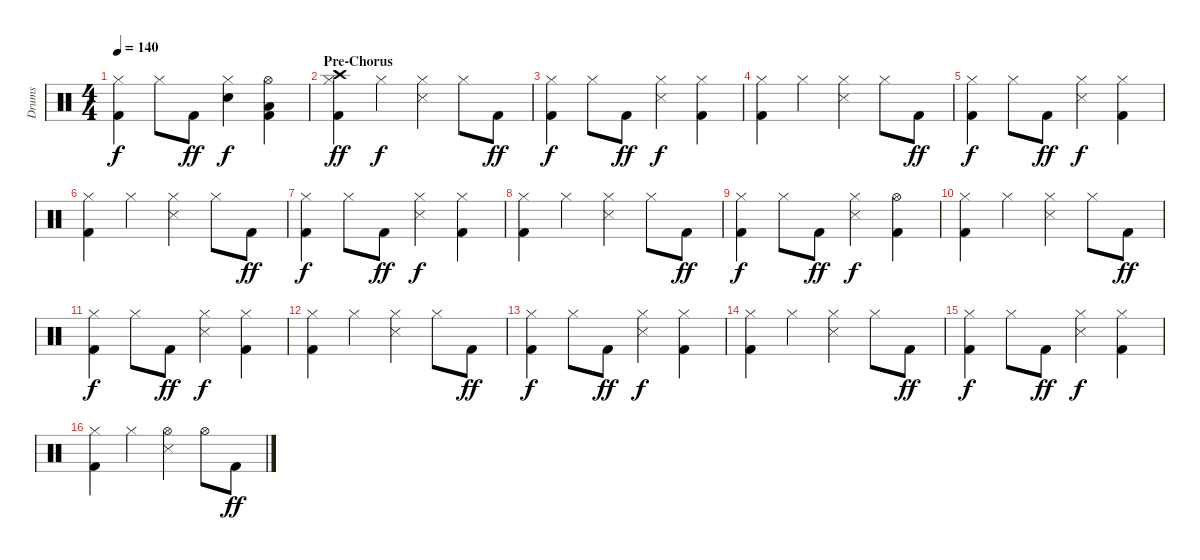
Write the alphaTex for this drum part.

\track ("Drums" "Drums") {instrument percussion}
\staff {score}
\articulation defaults
\ts (4 4)
\tempo 140
\clef neutral
\ks c
("Kick (hit) 2" "Hi-Hat (closed)").4{dy f} "Hi-Hat (closed)".8 "Kick (hit) 2".8{dy ff} ("Snare (hit) 2" "Hi-Hat (closed)").4{dy f} ("Kick (hit) 2" "Low Tom (hit)" "Hi-Hat (open)").4 |
\section ("" "Pre-Chorus")
("Kick (hit) 2" "Hi-Hat (closed)" "Crash high (hit)").4{dy ff} "Hi-Hat (closed)".4{dy f} ("Snare (side stick) 3" "Hi-Hat (closed)").4 "Hi-Hat (closed)".8 "Kick (hit) 2".8{dy ff} |
("Kick (hit) 2" "Hi-Hat (closed)").4{dy f} "Hi-Hat (closed)".8 "Kick (hit) 2".8{dy ff} ("Snare (side stick) 3" "Hi-Hat (closed)").4{dy f} ("Kick (hit) 2" "Hi-Hat (closed)").4 |
("Kick (hit) 2" "Hi-Hat (closed)").4 "Hi-Hat (closed)".4 ("Snare (side stick) 3" "Hi-Hat (closed)").4 "Hi-Hat (closed)".8 "Kick (hit) 2".8{dy ff} |
("Kick (hit) 2" "Hi-Hat (closed)").4{dy f} "Hi-Hat (closed)".8 "Kick (hit) 2".8{dy ff} ("Snare (side stick) 3" "Hi-Hat (closed)").4{dy f} ("Kick (hit) 2" "Hi-Hat (closed)").4 |
("Kick (hit) 2" "Hi-Hat (closed)").4 "Hi-Hat (closed)".4 ("Snare (side stick) 3" "Hi-Hat (closed)").4 "Hi-Hat (closed)".8 "Kick (hit) 2".8{dy ff} |
("Kick (hit) 2" "Hi-Hat (closed)").4{dy f} "Hi-Hat (closed)".8 "Kick (hit) 2".8{dy ff} ("Snare (side stick) 3" "Hi-Hat (closed)").4{dy f} ("Kick (hit) 2" "Hi-Hat (closed)").4 |
("Kick (hit) 2" "Hi-Hat (closed)").4 "Hi-Hat (closed)".4 ("Snare (side stick) 3" "Hi-Hat (closed)").4 "Hi-Hat (closed)".8 "Kick (hit) 2".8{dy ff} |
("Kick (hit) 2" "Hi-Hat (closed)").4{dy f} "Hi-Hat (closed)".8 "Kick (hit) 2".8{dy ff} ("Snare (side stick) 3" "Hi-Hat (closed)").4{dy f} ("Kick (hit) 2" "Hi-Hat (open)").4 |
("Kick (hit) 2" "Hi-Hat (closed)").4 "Hi-Hat (closed)".4 ("Snare (side stick) 3" "Hi-Hat (closed)").4 "Hi-Hat (closed)".8 "Kick (hit) 2".8{dy ff} |
("Kick (hit) 2" "Hi-Hat (closed)").4{dy f} "Hi-Hat (closed)".8 "Kick (hit) 2".8{dy ff} ("Snare (side stick) 3" "Hi-Hat (closed)").4{dy f} ("Kick (hit) 2" "Hi-Hat (closed)").4 |
("Kick (hit) 2" "Hi-Hat (closed)").4 "Hi-Hat (closed)".4 ("Snare (side stick) 3" "Hi-Hat (closed)").4 "Hi-Hat (closed)".8 "Kick (hit) 2".8{dy ff} |
("Kick (hit) 2" "Hi-Hat (closed)").4{dy f} "Hi-Hat (closed)".8 "Kick (hit) 2".8{dy ff} ("Snare (side stick) 3" "Hi-Hat (closed)").4{dy f} ("Kick (hit) 2" "Hi-Hat (closed)").4 |
("Kick (hit) 2" "Hi-Hat (closed)").4 "Hi-Hat (closed)".4 ("Snare (side stick) 3" "Hi-Hat (closed)").4 "Hi-Hat (closed)".8 "Kick (hit) 2".8{dy ff} |
("Kick (hit) 2" "Hi-Hat (closed)").4{dy f} "Hi-Hat (closed)".8 "Kick (hit) 2".8{dy ff} ("Snare (side stick) 3" "Hi-Hat (closed)").4{dy f} ("Kick (hit) 2" "Hi-Hat (closed)").4 |
("Kick (hit) 2" "Hi-Hat (closed)").4 "Hi-Hat (closed)".4 ("Snare (side stick) 3" "Hi-Hat (open)").4 "Hi-Hat (open)".8 "Kick (hit) 2".8{dy ff}
